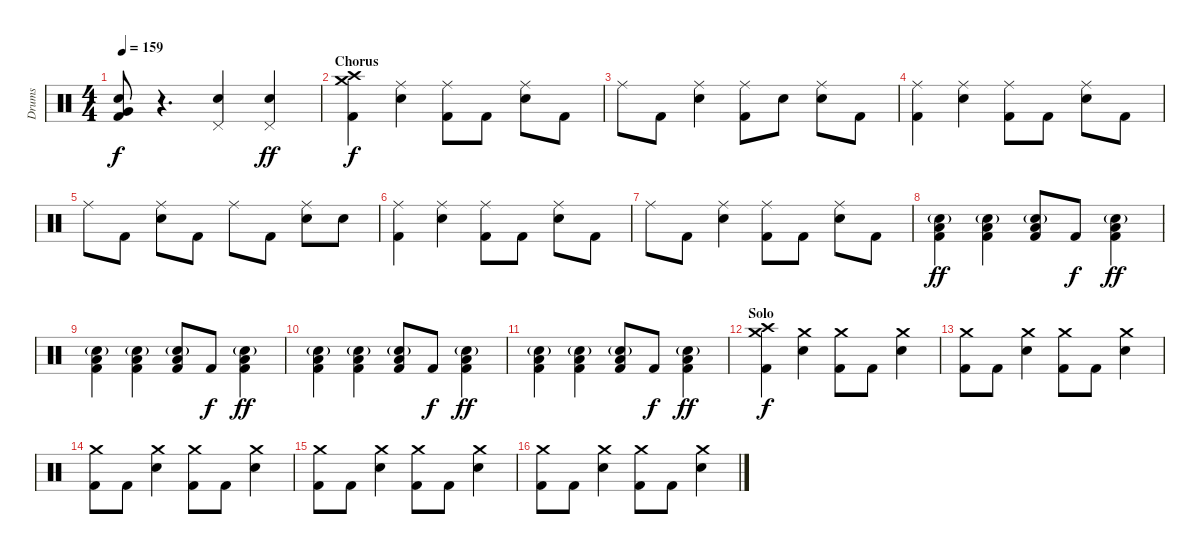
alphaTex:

\track ("Drums" "Drums") {instrument percussion}
\staff {score}
\articulation defaults
\ts (4 4)
\tempo 159
\clef neutral
\ks c
("Snare (hit) 2" "Very Low Tom (hit)" "Kick (hit) 2").8{dy f} r.4{d} ("Pedal Hi-Hat (hit)" "Snare (hit) 2").4 ("Pedal Hi-Hat (hit)" "Snare (hit) 2").4{dy ff} |
\section ("" "Chorus")
("Crash medium (hit)" "Crash high (hit)" "Kick (hit) 2").4{dy f} ("Ride (middle)" "Snare (hit) 2").4 ("Ride (middle)" "Kick (hit) 2").8 "Kick (hit) 2".8 ("Ride (middle)" "Snare (hit) 2").8 "Kick (hit) 2".8 |
"Ride (middle)".8 "Kick (hit) 2".8 ("Ride (middle)" "Snare (hit) 2").4 ("Ride (middle)" "Kick (hit) 2").8 "Snare (hit) 2".8 ("Ride (middle)" "Snare (hit) 2").8 "Kick (hit) 2".8 |
("Ride (middle)" "Kick (hit) 2").4 ("Ride (middle)" "Snare (hit) 2").4 ("Ride (middle)" "Kick (hit) 2").8 "Kick (hit) 2".8 ("Ride (middle)" "Snare (hit) 2").8 "Kick (hit) 2".8 |
"Ride (middle)".8 "Kick (hit) 2".8 ("Ride (middle)" "Snare (hit) 2").8 "Kick (hit) 2".8 "Ride (middle)".8 "Kick (hit) 2".8 ("Ride (middle)" "Snare (hit) 2").8 "Snare (hit) 2".8 |
("Ride (middle)" "Kick (hit) 2").4 ("Ride (middle)" "Snare (hit) 2").4 ("Ride (middle)" "Kick (hit) 2").8 "Kick (hit) 2".8 ("Ride (middle)" "Snare (hit) 2").8 "Kick (hit) 2".8 |
"Ride (middle)".8 "Kick (hit) 2".8 ("Ride (middle)" "Snare (hit) 2").4 ("Ride (middle)" "Kick (hit) 2").8 "Kick (hit) 2".8 ("Ride (middle)" "Snare (hit) 2").8 "Kick (hit) 2".8 |
("Snare (hit) 2"{g} "Low Tom (hit)" "Kick (hit) 2").4{dy ff} ("Snare (hit) 2"{g} "Low Tom (hit)" "Kick (hit) 2").4 ("Snare (hit) 2"{g} "Low Tom (hit)" "Kick (hit) 2").8 "Kick (hit) 2".8{dy f} ("Snare (hit) 2"{g} "Low Tom (hit)" "Kick (hit) 2").4{dy ff} |
("Snare (hit) 2"{g} "Low Tom (hit)" "Kick (hit) 2").4 ("Snare (hit) 2"{g} "Low Tom (hit)" "Kick (hit) 2").4 ("Snare (hit) 2"{g} "Low Tom (hit)" "Kick (hit) 2").8 "Kick (hit) 2".8{dy f} ("Snare (hit) 2"{g} "Low Tom (hit)" "Kick (hit) 2").4{dy ff} |
("Snare (hit) 2"{g} "Low Tom (hit)" "Kick (hit) 2").4 ("Snare (hit) 2"{g} "Low Tom (hit)" "Kick (hit) 2").4 ("Snare (hit) 2"{g} "Low Tom (hit)" "Kick (hit) 2").8 "Kick (hit) 2".8{dy f} ("Snare (hit) 2"{g} "Low Tom (hit)" "Kick (hit) 2").4{dy ff} |
("Snare (hit) 2"{g} "Low Tom (hit)" "Kick (hit) 2").4 ("Snare (hit) 2"{g} "Low Tom (hit)" "Kick (hit) 2").4 ("Snare (hit) 2"{g} "Low Tom (hit)" "Kick (hit) 2").8 "Kick (hit) 2".8{dy f} ("Snare (hit) 2"{g} "Low Tom (hit)" "Kick (hit) 2").4{dy ff} |
\section ("" "Solo")
("Crash medium (hit)" "Crash high (hit)" "Kick (hit) 2").4{dy f} ("Crash medium (hit)" "Snare (hit) 2").4 ("Crash medium (hit)" "Kick (hit) 2").8 "Kick (hit) 2".8 ("Crash medium (hit)" "Snare (hit) 2").4 |
("Crash medium (hit)" "Kick (hit) 2").8 "Kick (hit) 2".8 ("Crash medium (hit)" "Snare (hit) 2").4 ("Crash medium (hit)" "Kick (hit) 2").8 "Kick (hit) 2".8 ("Crash medium (hit)" "Snare (hit) 2").4 |
("Crash medium (hit)" "Kick (hit) 2").8 "Kick (hit) 2".8 ("Crash medium (hit)" "Snare (hit) 2").4 ("Crash medium (hit)" "Kick (hit) 2").8 "Kick (hit) 2".8 ("Crash medium (hit)" "Snare (hit) 2").4 |
("Crash medium (hit)" "Kick (hit) 2").8 "Kick (hit) 2".8 ("Crash medium (hit)" "Snare (hit) 2").4 ("Crash medium (hit)" "Kick (hit) 2").8 "Kick (hit) 2".8 ("Crash medium (hit)" "Snare (hit) 2").4 |
("Crash medium (hit)" "Kick (hit) 2").8 "Kick (hit) 2".8 ("Crash medium (hit)" "Snare (hit) 2").4 ("Crash medium (hit)" "Kick (hit) 2").8 "Kick (hit) 2".8 ("Crash medium (hit)" "Snare (hit) 2").4
